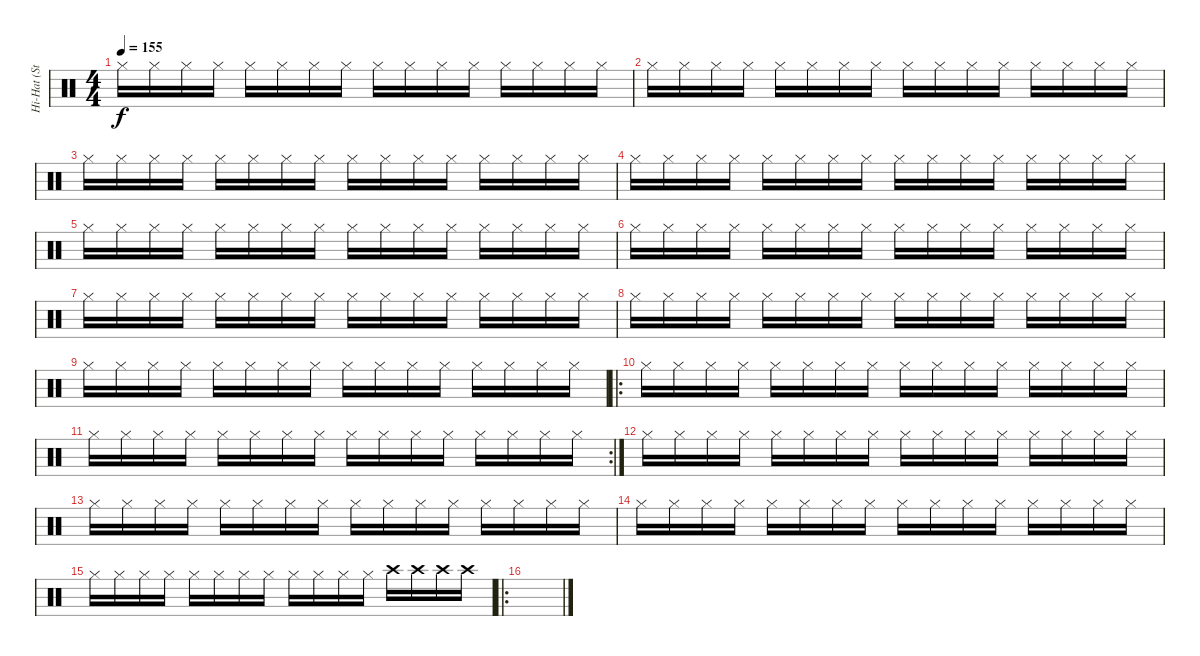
\track ("Hi-Hat (Stephen Morris)" "Hi-Hat (St") {instrument percussion}
\staff {score}
\articulation defaults
\ts (4 4)
\tempo 155
\clef neutral
\ks c "Hi-Hat (closed)".16{dy f} "Hi-Hat (closed)".16 "Hi-Hat (closed)".16 "Hi-Hat (closed)".16 "Hi-Hat (closed)".16 "Hi-Hat (closed)".16 "Hi-Hat (closed)".16 "Hi-Hat (closed)".16 "Hi-Hat (closed)".16 "Hi-Hat (closed)".16 "Hi-Hat (closed)".16 "Hi-Hat (closed)".16 "Hi-Hat (closed)".16 "Hi-Hat (closed)".16 "Hi-Hat (closed)".16 "Hi-Hat (closed)".16
|
"Hi-Hat (closed)".16 "Hi-Hat (closed)".16 "Hi-Hat (closed)".16 "Hi-Hat (closed)".16 "Hi-Hat (closed)".16 "Hi-Hat (closed)".16 "Hi-Hat (closed)".16 "Hi-Hat (closed)".16 "Hi-Hat (closed)".16 "Hi-Hat (closed)".16 "Hi-Hat (closed)".16 "Hi-Hat (closed)".16 "Hi-Hat (closed)".16 "Hi-Hat (closed)".16 "Hi-Hat (closed)".16 "Hi-Hat (closed)".16 |
"Hi-Hat (closed)".16 "Hi-Hat (closed)".16 "Hi-Hat (closed)".16 "Hi-Hat (closed)".16 "Hi-Hat (closed)".16 "Hi-Hat (closed)".16 "Hi-Hat (closed)".16 "Hi-Hat (closed)".16 "Hi-Hat (closed)".16 "Hi-Hat (closed)".16 "Hi-Hat (closed)".16 "Hi-Hat (closed)".16 "Hi-Hat (closed)".16 "Hi-Hat (closed)".16 "Hi-Hat (closed)".16 "Hi-Hat (closed)".16 |
"Hi-Hat (closed)".16 "Hi-Hat (closed)".16 "Hi-Hat (closed)".16 "Hi-Hat (closed)".16 "Hi-Hat (closed)".16 "Hi-Hat (closed)".16 "Hi-Hat (closed)".16 "Hi-Hat (closed)".16 "Hi-Hat (closed)".16 "Hi-Hat (closed)".16 "Hi-Hat (closed)".16 "Hi-Hat (closed)".16 "Hi-Hat (closed)".16 "Hi-Hat (closed)".16 "Hi-Hat (closed)".16 "Hi-Hat (closed)".16 |
"Hi-Hat (closed)".16 "Hi-Hat (closed)".16 "Hi-Hat (closed)".16 "Hi-Hat (closed)".16 "Hi-Hat (closed)".16 "Hi-Hat (closed)".16 "Hi-Hat (closed)".16 "Hi-Hat (closed)".16 "Hi-Hat (closed)".16 "Hi-Hat (closed)".16 "Hi-Hat (closed)".16 "Hi-Hat (closed)".16 "Hi-Hat (closed)".16 "Hi-Hat (closed)".16 "Hi-Hat (closed)".16 "Hi-Hat (closed)".16 |
"Hi-Hat (closed)".16 "Hi-Hat (closed)".16 "Hi-Hat (closed)".16 "Hi-Hat (closed)".16 "Hi-Hat (closed)".16 "Hi-Hat (closed)".16 "Hi-Hat (closed)".16 "Hi-Hat (closed)".16 "Hi-Hat (closed)".16 "Hi-Hat (closed)".16 "Hi-Hat (closed)".16 "Hi-Hat (closed)".16 "Hi-Hat (closed)".16 "Hi-Hat (closed)".16 "Hi-Hat (closed)".16 "Hi-Hat (closed)".16 |
"Hi-Hat (closed)".16 "Hi-Hat (closed)".16 "Hi-Hat (closed)".16 "Hi-Hat (closed)".16 "Hi-Hat (closed)".16 "Hi-Hat (closed)".16 "Hi-Hat (closed)".16 "Hi-Hat (closed)".16 "Hi-Hat (closed)".16 "Hi-Hat (closed)".16 "Hi-Hat (closed)".16 "Hi-Hat (closed)".16 "Hi-Hat (closed)".16 "Hi-Hat (closed)".16 "Hi-Hat (closed)".16 "Hi-Hat (closed)".16 |
"Hi-Hat (closed)".16 "Hi-Hat (closed)".16 "Hi-Hat (closed)".16 "Hi-Hat (closed)".16 "Hi-Hat (closed)".16 "Hi-Hat (closed)".16 "Hi-Hat (closed)".16 "Hi-Hat (closed)".16 "Hi-Hat (closed)".16 "Hi-Hat (closed)".16 "Hi-Hat (closed)".16 "Hi-Hat (closed)".16 "Hi-Hat (closed)".16 "Hi-Hat (closed)".16 "Hi-Hat (closed)".16 "Hi-Hat (closed)".16 |
"Hi-Hat (closed)".16 "Hi-Hat (closed)".16 "Hi-Hat (closed)".16 "Hi-Hat (closed)".16 "Hi-Hat (closed)".16 "Hi-Hat (closed)".16 "Hi-Hat (closed)".16 "Hi-Hat (closed)".16 "Hi-Hat (closed)".16 "Hi-Hat (closed)".16 "Hi-Hat (closed)".16 "Hi-Hat (closed)".16 "Hi-Hat (closed)".16 "Hi-Hat (closed)".16 "Hi-Hat (closed)".16 "Hi-Hat (closed)".16 |
\ro "Hi-Hat (closed)".16 "Hi-Hat (closed)".16 "Hi-Hat (closed)".16 "Hi-Hat (closed)".16 "Hi-Hat (closed)".16 "Hi-Hat (closed)".16 "Hi-Hat (closed)".16 "Hi-Hat (closed)".16 "Hi-Hat (closed)".16 "Hi-Hat (closed)".16 "Hi-Hat (closed)".16 "Hi-Hat (closed)".16 "Hi-Hat (closed)".16 "Hi-Hat (closed)".16 "Hi-Hat (closed)".16 "Hi-Hat (closed)".16
|
\rc 2 "Hi-Hat (closed)".16 "Hi-Hat (closed)".16 "Hi-Hat (closed)".16 "Hi-Hat (closed)".16 "Hi-Hat (closed)".16 "Hi-Hat (closed)".16 "Hi-Hat (closed)".16 "Hi-Hat (closed)".16 "Hi-Hat (closed)".16 "Hi-Hat (closed)".16 "Hi-Hat (closed)".16 "Hi-Hat (closed)".16 "Hi-Hat (closed)".16 "Hi-Hat (closed)".16 "Hi-Hat (closed)".16 "Hi-Hat (closed)".16
|
"Hi-Hat (closed)".16 "Hi-Hat (closed)".16 "Hi-Hat (closed)".16 "Hi-Hat (closed)".16 "Hi-Hat (closed)".16 "Hi-Hat (closed)".16 "Hi-Hat (closed)".16 "Hi-Hat (closed)".16 "Hi-Hat (closed)".16 "Hi-Hat (closed)".16 "Hi-Hat (closed)".16 "Hi-Hat (closed)".16 "Hi-Hat (closed)".16 "Hi-Hat (closed)".16 "Hi-Hat (closed)".16 "Hi-Hat (closed)".16 |
"Hi-Hat (closed)".16 "Hi-Hat (closed)".16 "Hi-Hat (closed)".16 "Hi-Hat (closed)".16 "Hi-Hat (closed)".16 "Hi-Hat (closed)".16 "Hi-Hat (closed)".16 "Hi-Hat (closed)".16 "Hi-Hat (closed)".16 "Hi-Hat (closed)".16 "Hi-Hat (closed)".16 "Hi-Hat (closed)".16 "Hi-Hat (closed)".16 "Hi-Hat (closed)".16 "Hi-Hat (closed)".16 "Hi-Hat (closed)".16 |
"Hi-Hat (closed)".16 "Hi-Hat (closed)".16 "Hi-Hat (closed)".16 "Hi-Hat (closed)".16 "Hi-Hat (closed)".16 "Hi-Hat (closed)".16 "Hi-Hat (closed)".16 "Hi-Hat (closed)".16 "Hi-Hat (closed)".16 "Hi-Hat (closed)".16 "Hi-Hat (closed)".16 "Hi-Hat (closed)".16 "Hi-Hat (closed)".16 "Hi-Hat (closed)".16 "Hi-Hat (closed)".16 "Hi-Hat (closed)".16 |
"Hi-Hat (closed)".16 "Hi-Hat (closed)".16 "Hi-Hat (closed)".16 "Hi-Hat (closed)".16 "Hi-Hat (closed)".16 "Hi-Hat (closed)".16 "Hi-Hat (closed)".16 "Hi-Hat (closed)".16 "Hi-Hat (closed)".16 "Hi-Hat (closed)".16 "Hi-Hat (closed)".16 "Hi-Hat (closed)".16 "Crash high (hit)".16 "Crash high (hit)".16 "Crash high (hit)".16 "Crash high (hit)".16 |
\ro
